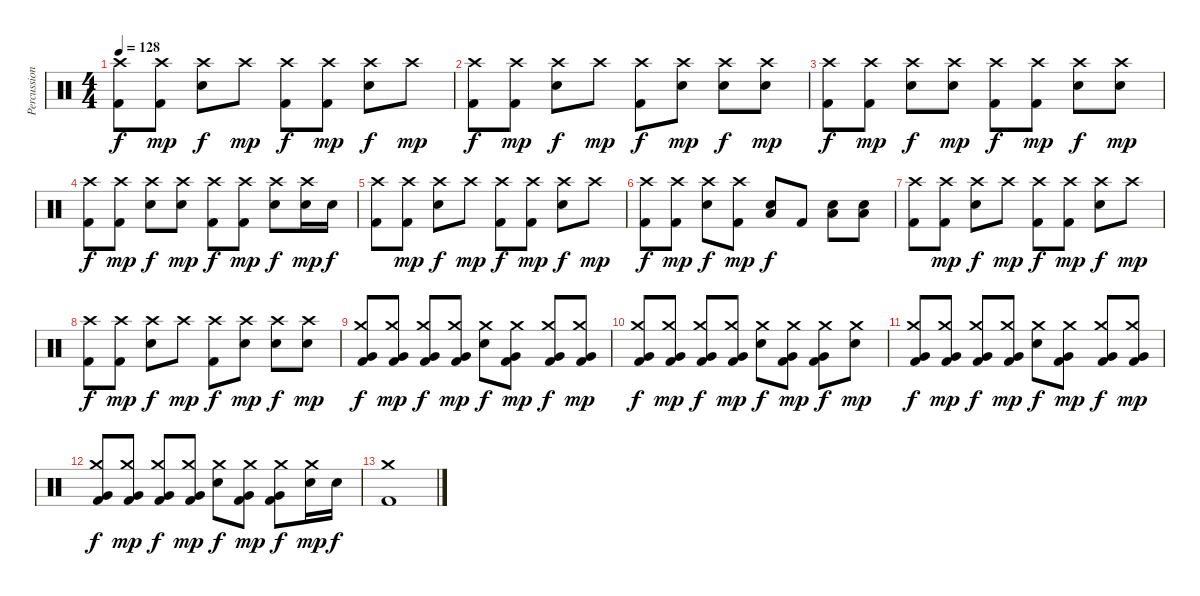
\track ("Percussion" "Percussion") {instrument percussion}
\staff {score}
\articulation defaults
\ts (4 4)
\tempo 128
\clef neutral
\ks c
("Crash high (hit)" "Kick (hit) 2").8{dy f} ("Crash high (hit)" "Kick (hit) 2").8{dy mp} ("Crash high (hit)" "Snare (hit) 2").8{dy f} "Crash high (hit)".8{dy mp} ("Crash high (hit)" "Kick (hit) 2").8{dy f} ("Crash high (hit)" "Kick (hit) 2").8{dy mp} ("Crash high (hit)" "Snare (hit) 2").8{dy f} "Crash high (hit)".8{dy mp} |
("Crash high (hit)" "Kick (hit) 2").8{dy f} ("Crash high (hit)" "Kick (hit) 2").8{dy mp} ("Crash high (hit)" "Snare (hit) 2").8{dy f} "Crash high (hit)".8{dy mp} ("Crash high (hit)" "Kick (hit) 2").8{dy f} ("Crash high (hit)" "Snare (hit) 2").8{dy mp} ("Crash high (hit)" "Snare (hit) 2").8{dy f} ("Crash high (hit)" "Snare (hit) 2").8{dy mp} |
("Crash high (hit)" "Kick (hit) 2").8{dy f} ("Crash high (hit)" "Kick (hit) 2").8{dy mp} ("Crash high (hit)" "Snare (hit) 2").8{dy f} ("Crash high (hit)" "Snare (hit) 2").8{dy mp} ("Crash high (hit)" "Kick (hit) 2").8{dy f} ("Crash high (hit)" "Kick (hit) 2").8{dy mp} ("Crash high (hit)" "Snare (hit) 2").8{dy f} ("Crash high (hit)" "Snare (hit) 2").8{dy mp} |
("Crash high (hit)" "Kick (hit) 2").8{dy f} ("Crash high (hit)" "Kick (hit) 2").8{dy mp} ("Crash high (hit)" "Snare (hit) 2").8{dy f} ("Crash high (hit)" "Snare (hit) 2").8{dy mp} ("Crash high (hit)" "Kick (hit) 2").8{dy f} ("Crash high (hit)" "Kick (hit) 2").8{dy mp} ("Crash high (hit)" "Snare (hit) 2").8{dy f} ("Crash high (hit)" "Snare (hit) 2").16{dy mp} "Snare (hit) 2".16{dy f} |
("Crash high (hit)" "Kick (hit) 2").8 ("Crash high (hit)" "Kick (hit) 2").8{dy mp} ("Crash high (hit)" "Snare (hit) 2").8{dy f} "Crash high (hit)".8{dy mp} ("Crash high (hit)" "Kick (hit) 2").8{dy f} ("Crash high (hit)" "Kick (hit) 2").8{dy mp} ("Crash high (hit)" "Snare (hit) 2").8{dy f} "Crash high (hit)".8{dy mp} |
("Crash high (hit)" "Kick (hit) 2").8{dy f} ("Crash high (hit)" "Kick (hit) 2").8{dy mp} ("Crash high (hit)" "Snare (hit) 2").8{dy f} ("Crash high (hit)" "Kick (hit) 2").8{dy mp} ("Low Tom (hit)" "Snare (hit) 2").8{dy f} "Kick (hit) 2".8 ("Low Tom (hit)" "Snare (hit) 2").8 ("Low Tom (hit)" "Snare (hit) 2").8 |
("Crash high (hit)" "Kick (hit) 2").8 ("Crash high (hit)" "Kick (hit) 2").8{dy mp} ("Crash high (hit)" "Snare (hit) 2").8{dy f} "Crash high (hit)".8{dy mp} ("Crash high (hit)" "Kick (hit) 2").8{dy f} ("Crash high (hit)" "Kick (hit) 2").8{dy mp} ("Crash high (hit)" "Snare (hit) 2").8{dy f} "Crash high (hit)".8{dy mp} |
("Crash high (hit)" "Kick (hit) 2").8{dy f} ("Crash high (hit)" "Kick (hit) 2").8{dy mp} ("Crash high (hit)" "Snare (hit) 2").8{dy f} "Crash high (hit)".8{dy mp} ("Crash high (hit)" "Kick (hit) 2").8{dy f} ("Crash high (hit)" "Snare (hit) 2").8{dy mp} ("Crash high (hit)" "Snare (hit) 2").8{dy f} ("Crash high (hit)" "Snare (hit) 2").8{dy mp} |
("Crash medium (hit)" "Very Low Tom (hit)" "Kick (hit) 2").8{dy f} ("Crash medium (hit)" "Very Low Tom (hit)" "Kick (hit) 2").8{dy mp} ("Crash medium (hit)" "Very Low Tom (hit)" "Kick (hit) 2").8{dy f} ("Crash medium (hit)" "Very Low Tom (hit)" "Kick (hit) 2").8{dy mp} ("Crash medium (hit)" "Snare (hit) 2").8{dy f} ("Crash medium (hit)" "Very Low Tom (hit)" "Kick (hit) 2").8{dy mp} ("Crash medium (hit)" "Very Low Tom (hit)" "Kick (hit) 2").8{dy f} ("Crash medium (hit)" "Very Low Tom (hit)" "Kick (hit) 2").8{dy mp} |
("Crash medium (hit)" "Very Low Tom (hit)" "Kick (hit) 2").8{dy f} ("Crash medium (hit)" "Very Low Tom (hit)" "Kick (hit) 2").8{dy mp} ("Crash medium (hit)" "Very Low Tom (hit)" "Kick (hit) 2").8{dy f} ("Crash medium (hit)" "Very Low Tom (hit)" "Kick (hit) 2").8{dy mp} ("Crash medium (hit)" "Snare (hit) 2").8{dy f} ("Crash medium (hit)" "Very Low Tom (hit)" "Kick (hit) 2").8{dy mp} ("Crash medium (hit)" "Very Low Tom (hit)" "Kick (hit) 2").8{dy f} ("Crash medium (hit)" "Snare (hit) 2").8{dy mp} |
("Crash medium (hit)" "Very Low Tom (hit)" "Kick (hit) 2").8{dy f} ("Crash medium (hit)" "Very Low Tom (hit)" "Kick (hit) 2").8{dy mp} ("Crash medium (hit)" "Very Low Tom (hit)" "Kick (hit) 2").8{dy f} ("Crash medium (hit)" "Very Low Tom (hit)" "Kick (hit) 2").8{dy mp} ("Crash medium (hit)" "Snare (hit) 2").8{dy f} ("Crash medium (hit)" "Very Low Tom (hit)" "Kick (hit) 2").8{dy mp} ("Crash medium (hit)" "Very Low Tom (hit)" "Kick (hit) 2").8{dy f} ("Crash medium (hit)" "Very Low Tom (hit)" "Kick (hit) 2").8{dy mp} |
("Crash medium (hit)" "Very Low Tom (hit)" "Kick (hit) 2").8{dy f} ("Crash medium (hit)" "Very Low Tom (hit)" "Kick (hit) 2").8{dy mp} ("Crash medium (hit)" "Very Low Tom (hit)" "Kick (hit) 2").8{dy f} ("Crash medium (hit)" "Very Low Tom (hit)" "Kick (hit) 2").8{dy mp} ("Crash medium (hit)" "Snare (hit) 2").8{dy f} ("Crash medium (hit)" "Very Low Tom (hit)" "Kick (hit) 2").8{dy mp} ("Crash medium (hit)" "Very Low Tom (hit)" "Kick (hit) 2").8{dy f} ("Crash medium (hit)" "Snare (hit) 2").16{dy mp} "Snare (hit) 2".16{dy f} |
("Crash medium (hit)" "Kick (hit) 2").1
